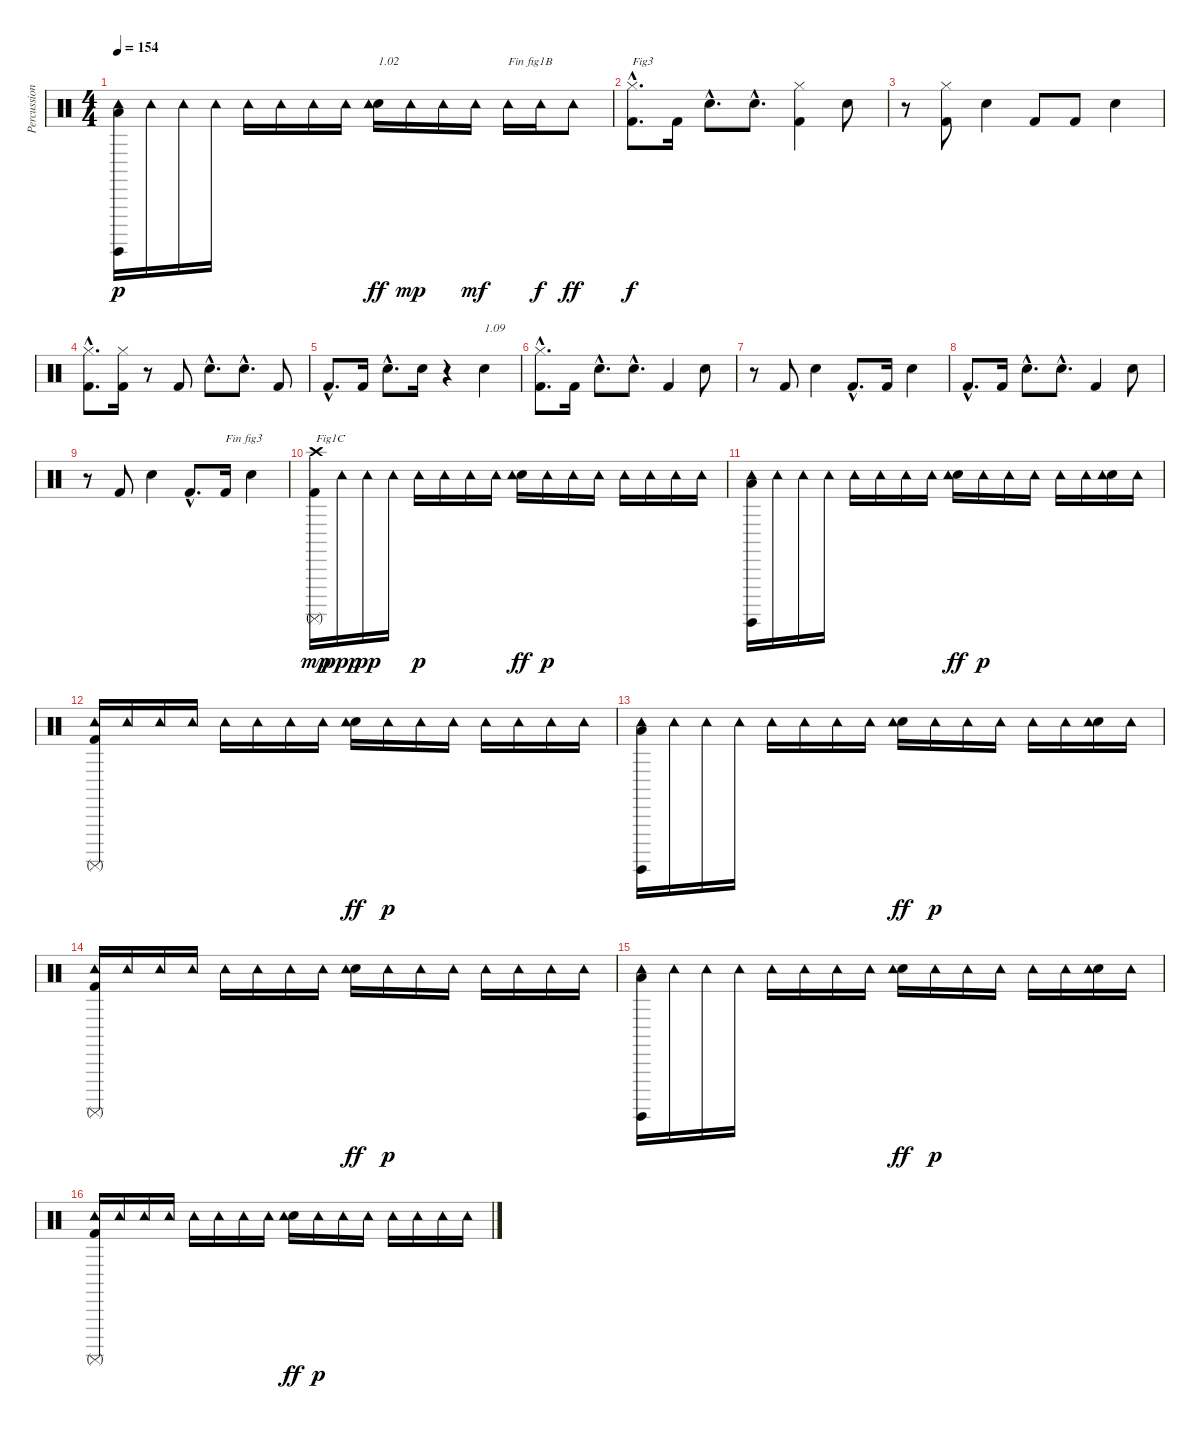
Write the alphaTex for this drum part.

\track ("Percussions" "Percussion") {instrument percussion}
\staff {score}
\articulation defaults
\ts (4 4)
\tempo 154
\clef neutral
\ks c
("Low Tom (hit)" "Surdo (hit)" "Tambourine (hit)").16{dy p} "Tambourine (hit)".16 "Tambourine (hit)".16 "Tambourine (hit)".16 "Tambourine (hit)".16 "Tambourine (hit)".16 "Tambourine (hit)".16 "Tambourine (hit)".16 ("Electric Snare (hit)" "Tambourine (hit)").16{txt "1.02" dy ff} "Tambourine (hit)".16{dy mp} "Tambourine (hit)".16 "Tambourine (hit)".16{dy mf} "Tambourine (hit)".16{txt "Fin fig1B"} "Tambourine (hit)".16{dy f} "Tambourine (hit)".8{dy ff} |
("Kick (hit) 2"{hac} "Hi-Hat (closed)"{hac}).8{d txt "Fig3" dy f} "Kick (hit) 2".16 "Electric Snare (hit)"{hac}.8{d} "Electric Snare (hit)"{hac}.8{d} ("Kick (hit) 2" "Hi-Hat (closed)").4 "Electric Snare (hit)".8 |
r.8 ("Kick (hit) 2" "Hi-Hat (closed)").8 "Electric Snare (hit)".4 "Kick (hit) 2".8 "Kick (hit) 2".8 "Electric Snare (hit)".4 |
("Kick (hit) 2"{hac} "Hi-Hat (closed)"{hac}).8{d} ("Kick (hit) 2" "Hi-Hat (closed)").16 r.8 "Kick (hit) 2".8 "Electric Snare (hit)"{hac}.8{d} "Electric Snare (hit)"{hac}.8{d} "Kick (hit) 2".8 |
"Kick (hit) 2"{hac}.8{d} "Kick (hit) 2".16 "Electric Snare (hit)"{hac}.8{d} "Electric Snare (hit)".16 r.4 "Electric Snare (hit)".4{txt "1.09"} |
("Kick (hit) 2"{hac} "Hi-Hat (closed)"{hac}).8{d} "Kick (hit) 2".16 "Electric Snare (hit)"{hac}.8{d} "Electric Snare (hit)"{hac}.8{d} "Kick (hit) 2".4 "Electric Snare (hit)".8 |
r.8 "Kick (hit) 2".8 "Electric Snare (hit)".4 "Kick (hit) 2"{hac}.8{d} "Kick (hit) 2".16 "Electric Snare (hit)".4 |
"Kick (hit) 2"{hac}.8{d} "Kick (hit) 2".16 "Electric Snare (hit)"{hac}.8{d} "Electric Snare (hit)"{hac}.8{d} "Kick (hit) 2".4 "Electric Snare (hit)".8 |
r.8 "Kick (hit) 2".8 "Electric Snare (hit)".4 "Kick (hit) 2"{hac}.8{d} "Kick (hit) 2".16{txt "Fin fig3"} "Electric Snare (hit)".4 |
("Kick (hit) 2" "Surdo (mute)" "Crash high (hit)").16{txt "Fig1C" dy mp} "Tambourine (hit)".16{dy ppp} "Tambourine (hit)".16{dy pp} "Tambourine (hit)".16 "Tambourine (hit)".16{dy p} "Tambourine (hit)".16 "Tambourine (hit)".16 "Tambourine (hit)".16 ("Electric Snare (hit)" "Tambourine (hit)").16{dy ff} "Tambourine (hit)".16{dy p} "Tambourine (hit)".16 "Tambourine (hit)".16 "Tambourine (hit)".16 "Tambourine (hit)".16 "Tambourine (hit)".16 "Tambourine (hit)".16 |
("Low Tom (hit)" "Surdo (hit)" "Tambourine (hit)").16 "Tambourine (hit)".16 "Tambourine (hit)".16 "Tambourine (hit)".16 "Tambourine (hit)".16 "Tambourine (hit)".16 "Tambourine (hit)".16 "Tambourine (hit)".16 ("Electric Snare (hit)" "Tambourine (hit)").16{dy ff} "Tambourine (hit)".16{dy p} "Tambourine (hit)".16 "Tambourine (hit)".16 "Tambourine (hit)".16 "Tambourine (hit)".16 ("Electric Snare (hit)" "Tambourine (hit)").16 "Tambourine (hit)".16 |
("Kick (hit) 2" "Surdo (mute)" "Tambourine (hit)").16 "Tambourine (hit)".16 "Tambourine (hit)".16 "Tambourine (hit)".16 "Tambourine (hit)".16 "Tambourine (hit)".16 "Tambourine (hit)".16 "Tambourine (hit)".16 ("Electric Snare (hit)" "Tambourine (hit)").16{dy ff} "Tambourine (hit)".16{dy p} "Tambourine (hit)".16 "Tambourine (hit)".16 "Tambourine (hit)".16 "Tambourine (hit)".16 "Tambourine (hit)".16 "Tambourine (hit)".16 |
("Low Tom (hit)" "Surdo (hit)" "Tambourine (hit)").16 "Tambourine (hit)".16 "Tambourine (hit)".16 "Tambourine (hit)".16 "Tambourine (hit)".16 "Tambourine (hit)".16 "Tambourine (hit)".16 "Tambourine (hit)".16 ("Electric Snare (hit)" "Tambourine (hit)").16{dy ff} "Tambourine (hit)".16{dy p} "Tambourine (hit)".16 "Tambourine (hit)".16 "Tambourine (hit)".16 "Tambourine (hit)".16 ("Electric Snare (hit)" "Tambourine (hit)").16 "Tambourine (hit)".16 |
("Kick (hit) 2" "Surdo (mute)" "Tambourine (hit)").16 "Tambourine (hit)".16 "Tambourine (hit)".16 "Tambourine (hit)".16 "Tambourine (hit)".16 "Tambourine (hit)".16 "Tambourine (hit)".16 "Tambourine (hit)".16 ("Electric Snare (hit)" "Tambourine (hit)").16{dy ff} "Tambourine (hit)".16{dy p} "Tambourine (hit)".16 "Tambourine (hit)".16 "Tambourine (hit)".16 "Tambourine (hit)".16 "Tambourine (hit)".16 "Tambourine (hit)".16 |
("Low Tom (hit)" "Surdo (hit)" "Tambourine (hit)").16 "Tambourine (hit)".16 "Tambourine (hit)".16 "Tambourine (hit)".16 "Tambourine (hit)".16 "Tambourine (hit)".16 "Tambourine (hit)".16 "Tambourine (hit)".16 ("Electric Snare (hit)" "Tambourine (hit)").16{dy ff} "Tambourine (hit)".16{dy p} "Tambourine (hit)".16 "Tambourine (hit)".16 "Tambourine (hit)".16 "Tambourine (hit)".16 ("Electric Snare (hit)" "Tambourine (hit)").16 "Tambourine (hit)".16 |
("Kick (hit) 2" "Surdo (mute)" "Tambourine (hit)").16 "Tambourine (hit)".16 "Tambourine (hit)".16 "Tambourine (hit)".16 "Tambourine (hit)".16 "Tambourine (hit)".16 "Tambourine (hit)".16 "Tambourine (hit)".16 ("Electric Snare (hit)" "Tambourine (hit)").16{dy ff} "Tambourine (hit)".16{dy p} "Tambourine (hit)".16 "Tambourine (hit)".16 "Tambourine (hit)".16 "Tambourine (hit)".16 "Tambourine (hit)".16 "Tambourine (hit)".16
